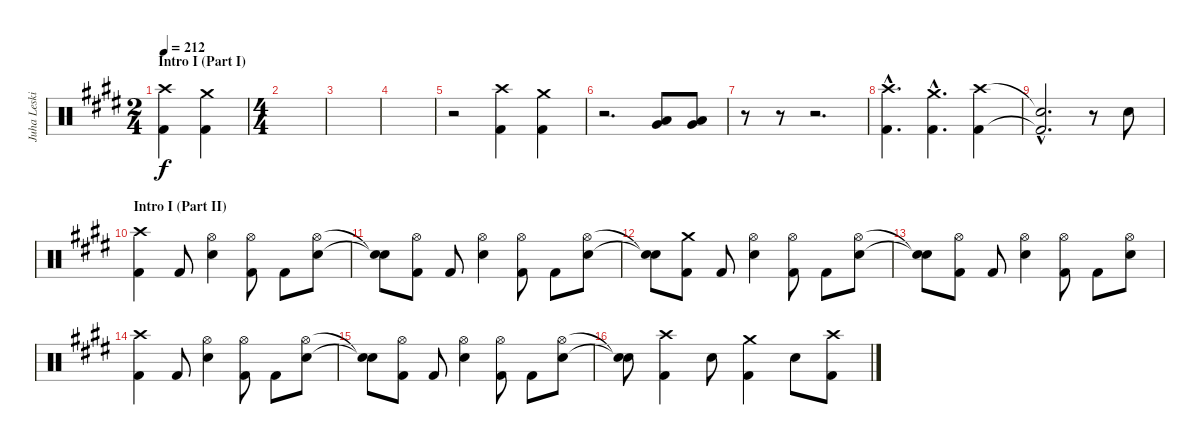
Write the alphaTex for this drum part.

\track ("Juha Leskinen - Drums" "Juha Leski") {instrument percussion}
\staff {score}
\articulation defaults
\ts (2 4)
\section ("" "Intro I (Part I)")
\tempo 212
\clef neutral
\ks c#minor
("Crash high (hit)" "Kick (hit) 2").4{dy f} ("Crash medium (hit)" "Kick (hit) 2").4 |
\ts (4 4)
|
|
|
r.2 ("Crash high (hit)" "Kick (hit) 2").4 ("Crash medium (hit)" "Kick (hit) 2").4 |
r.2{d} ("Low Tom (hit)" "Very Low Tom (hit)").8 ("Low Tom (hit)" "Very Low Tom (hit)").8 |
r.8 r.8 r.2{d} |
("Crash high (hit)"{hac} "Kick (hit) 2"{hac}).4{d} ("Crash medium (hit)"{hac} "Kick (hit) 2"{hac}).4{d} ("Crash high (hit)" "Kick (hit) 2").4 |
("Snare (hit)"{hac t} "Kick (hit) 2"{hac t}).2{d} r.8 "Electric Snare (hit)".8 |
\section ("" "Intro I (Part II)")
("Crash high (hit)" "Kick (hit) 2").4 "Kick (hit) 2".8 ("Hi-Hat (open)" "Electric Snare (hit)").4 ("Hi-Hat (open)" "Kick (hit) 2").8 "Kick (hit) 2".8 ("Hi-Hat (open)" "Electric Snare (hit)").8 |
("Snare (hit)"{t} "Snare (hit)"{t}).8 ("Hi-Hat (open)" "Kick (hit) 2").8 "Kick (hit) 2".8 ("Hi-Hat (open)" "Electric Snare (hit)").4 ("Hi-Hat (open)" "Kick (hit) 2").8 "Kick (hit) 2".8 ("Hi-Hat (open)" "Electric Snare (hit)").8 |
("Snare (hit)"{t} "Snare (hit)"{t}).8 ("Crash medium (hit)" "Kick (hit) 2").8 "Kick (hit) 2".8 ("Hi-Hat (open)" "Electric Snare (hit)").4 ("Hi-Hat (open)" "Kick (hit) 2").8 "Kick (hit) 2".8 ("Hi-Hat (open)" "Electric Snare (hit)").8 |
("Snare (hit)"{t} "Snare (hit)"{t}).8 ("Hi-Hat (open)" "Kick (hit) 2").8 "Kick (hit) 2".8 ("Hi-Hat (open)" "Electric Snare (hit)").4 ("Hi-Hat (open)" "Kick (hit) 2").8 "Kick (hit) 2".8 ("Hi-Hat (open)" "Electric Snare (hit)").8 |
("Crash high (hit)" "Kick (hit) 2").4 "Kick (hit) 2".8 ("Hi-Hat (open)" "Electric Snare (hit)").4 ("Hi-Hat (open)" "Kick (hit) 2").8 "Kick (hit) 2".8 ("Hi-Hat (open)" "Electric Snare (hit)").8 |
("Snare (hit)"{t} "Snare (hit)"{t}).8 ("Hi-Hat (open)" "Kick (hit) 2").8 "Kick (hit) 2".8 ("Hi-Hat (open)" "Electric Snare (hit)").4 ("Hi-Hat (open)" "Kick (hit) 2").8 "Kick (hit) 2".8 ("Hi-Hat (open)" "Electric Snare (hit)").8 |
("Snare (hit)"{t} "Snare (hit)"{t}).8 ("Crash high (hit)" "Kick (hit) 2").4 "Electric Snare (hit)".8 ("Crash medium (hit)" "Kick (hit) 2").4 "Electric Snare (hit)".8 ("Crash high (hit)" "Kick (hit) 2").8
